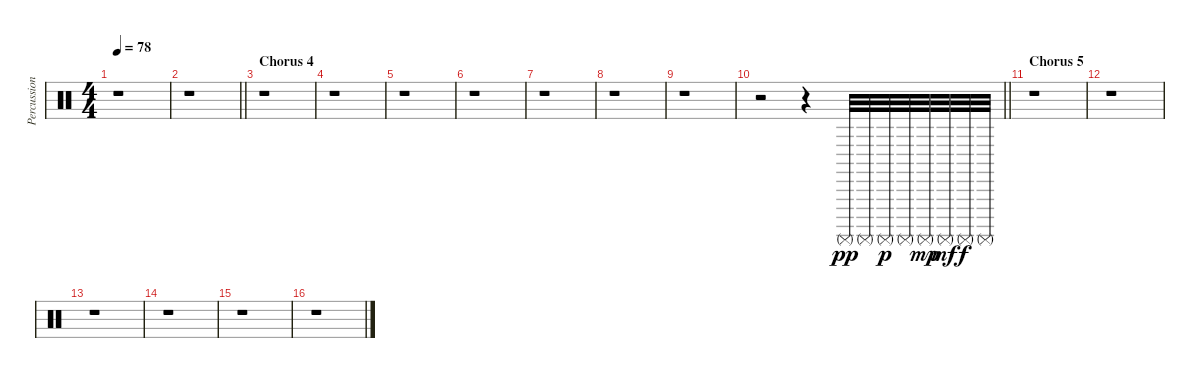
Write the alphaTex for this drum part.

\track ("Percussion" "Percussion") {instrument percussion}
\staff {score}
\articulation defaults
\ts (4 4)
\tempo 78
\clef neutral
\ks c
r.1{dy f} |
\barLineRight lightlight
r.1 |
\section ("" "Chorus 4")
r.1 |
r.1 |
r.1 |
r.1 |
r.1 |
r.1 |
r.1 |
\barLineRight lightlight
r.2 r.4 "Surdo (mute)".32{dy pp} "Surdo (mute)".32 "Surdo (mute)".32{dy p} "Surdo (mute)".32 "Surdo (mute)".32{dy mp} "Surdo (mute)".32{dy mf} "Surdo (mute)".32{dy f} "Surdo (mute)".32 |
\section ("" "Chorus 5")
r.1 |
r.1 |
r.1 |
r.1 |
r.1 |
r.1
